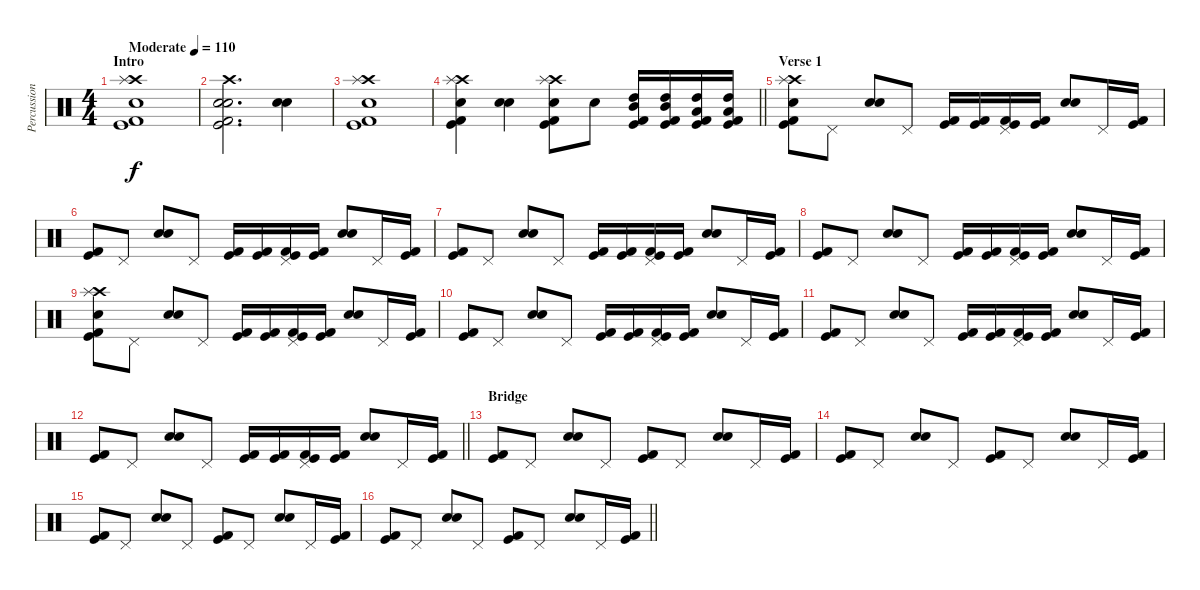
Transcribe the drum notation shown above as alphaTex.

\track ("Percussion" "Percussion") {instrument percussion}
\staff {score}
\articulation defaults
\ts (4 4)
\section ("" "Intro")
\tempo (110 "Moderate")
\clef neutral
\ks c
("Crash high (hit)" "Splash (hit)" "Snare (hit) 2" "Kick (hit)" "Kick (hit) 2").1{dy f} |
("Crash high (hit)" "Electric Snare (hit)" "Snare (hit) 2" "Kick (hit)" "Kick (hit) 2").2{d} ("Electric Snare (hit)" "Snare (hit) 2").4 |
("Crash high (hit)" "Splash (hit)" "Snare (hit) 2" "Kick (hit)" "Kick (hit) 2").1 |
\barLineRight lightlight
("Crash high (hit)" "Splash (hit)" "Snare (hit) 2" "Kick (hit)" "Kick (hit) 2").4 ("Electric Snare (hit)" "Snare (hit) 2").4 ("Crash high (hit)" "Splash (hit)" "Snare (hit) 2" "Kick (hit)" "Kick (hit) 2").8 "Snare (hit) 2".8 ("High Tom (hit)" "Mid Tom (hit)" "Kick (hit)" "Kick (hit) 2").16 ("High Tom (hit)" "Mid Tom (hit)" "Kick (hit)" "Kick (hit) 2").16 ("High Tom (hit)" "Low Tom (hit)" "Kick (hit)" "Kick (hit) 2").16 ("High Tom (hit)" "Low Tom (hit)" "Kick (hit)" "Kick (hit) 2").16 |
\section ("" "Verse 1")
("Crash high (hit)" "Splash (hit)" "Snare (hit) 2" "Kick (hit)" "Kick (hit) 2").8 "Pedal Hi-Hat (hit)".8 ("Electric Snare (hit)" "Snare (hit) 2").8 "Pedal Hi-Hat (hit)".8 ("Kick (hit)" "Kick (hit) 2").16 ("Kick (hit)" "Kick (hit) 2").16 ("Pedal Hi-Hat (hit)" "Kick (hit)" "Kick (hit) 2").16 ("Kick (hit)" "Kick (hit) 2").16 ("Electric Snare (hit)" "Snare (hit) 2").8 "Pedal Hi-Hat (hit)".16 ("Kick (hit)" "Kick (hit) 2").16 |
("Kick (hit)" "Kick (hit) 2").8 "Pedal Hi-Hat (hit)".8 ("Electric Snare (hit)" "Snare (hit) 2").8 "Pedal Hi-Hat (hit)".8 ("Kick (hit)" "Kick (hit) 2").16 ("Kick (hit)" "Kick (hit) 2").16 ("Pedal Hi-Hat (hit)" "Kick (hit)" "Kick (hit) 2").16 ("Kick (hit)" "Kick (hit) 2").16 ("Electric Snare (hit)" "Snare (hit) 2").8 "Pedal Hi-Hat (hit)".16 ("Kick (hit)" "Kick (hit) 2").16 |
("Kick (hit)" "Kick (hit) 2").8 "Pedal Hi-Hat (hit)".8 ("Electric Snare (hit)" "Snare (hit) 2").8 "Pedal Hi-Hat (hit)".8 ("Kick (hit)" "Kick (hit) 2").16 ("Kick (hit)" "Kick (hit) 2").16 ("Pedal Hi-Hat (hit)" "Kick (hit)" "Kick (hit) 2").16 ("Kick (hit)" "Kick (hit) 2").16 ("Electric Snare (hit)" "Snare (hit) 2").8 "Pedal Hi-Hat (hit)".16 ("Kick (hit)" "Kick (hit) 2").16 |
("Kick (hit)" "Kick (hit) 2").8 "Pedal Hi-Hat (hit)".8 ("Electric Snare (hit)" "Snare (hit) 2").8 "Pedal Hi-Hat (hit)".8 ("Kick (hit)" "Kick (hit) 2").16 ("Kick (hit)" "Kick (hit) 2").16 ("Pedal Hi-Hat (hit)" "Kick (hit)" "Kick (hit) 2").16 ("Kick (hit)" "Kick (hit) 2").16 ("Electric Snare (hit)" "Snare (hit) 2").8 "Pedal Hi-Hat (hit)".16 ("Kick (hit)" "Kick (hit) 2").16 |
("Crash high (hit)" "Splash (hit)" "Snare (hit) 2" "Kick (hit)" "Kick (hit) 2").8 "Pedal Hi-Hat (hit)".8 ("Electric Snare (hit)" "Snare (hit) 2").8 "Pedal Hi-Hat (hit)".8 ("Kick (hit)" "Kick (hit) 2").16 ("Kick (hit)" "Kick (hit) 2").16 ("Pedal Hi-Hat (hit)" "Kick (hit)" "Kick (hit) 2").16 ("Kick (hit)" "Kick (hit) 2").16 ("Electric Snare (hit)" "Snare (hit) 2").8 "Pedal Hi-Hat (hit)".16 ("Kick (hit)" "Kick (hit) 2").16 |
("Kick (hit)" "Kick (hit) 2").8 "Pedal Hi-Hat (hit)".8 ("Electric Snare (hit)" "Snare (hit) 2").8 "Pedal Hi-Hat (hit)".8 ("Kick (hit)" "Kick (hit) 2").16 ("Kick (hit)" "Kick (hit) 2").16 ("Pedal Hi-Hat (hit)" "Kick (hit)" "Kick (hit) 2").16 ("Kick (hit)" "Kick (hit) 2").16 ("Electric Snare (hit)" "Snare (hit) 2").8 "Pedal Hi-Hat (hit)".16 ("Kick (hit)" "Kick (hit) 2").16 |
("Kick (hit)" "Kick (hit) 2").8 "Pedal Hi-Hat (hit)".8 ("Electric Snare (hit)" "Snare (hit) 2").8 "Pedal Hi-Hat (hit)".8 ("Kick (hit)" "Kick (hit) 2").16 ("Kick (hit)" "Kick (hit) 2").16 ("Pedal Hi-Hat (hit)" "Kick (hit)" "Kick (hit) 2").16 ("Kick (hit)" "Kick (hit) 2").16 ("Electric Snare (hit)" "Snare (hit) 2").8 "Pedal Hi-Hat (hit)".16 ("Kick (hit)" "Kick (hit) 2").16 |
\barLineRight lightlight
("Kick (hit)" "Kick (hit) 2").8 "Pedal Hi-Hat (hit)".8 ("Electric Snare (hit)" "Snare (hit) 2").8 "Pedal Hi-Hat (hit)".8 ("Kick (hit)" "Kick (hit) 2").16 ("Kick (hit)" "Kick (hit) 2").16 ("Pedal Hi-Hat (hit)" "Kick (hit)" "Kick (hit) 2").16 ("Kick (hit)" "Kick (hit) 2").16 ("Electric Snare (hit)" "Snare (hit) 2").8 "Pedal Hi-Hat (hit)".16 ("Kick (hit)" "Kick (hit) 2").16 |
\section ("" "Bridge")
("Kick (hit)" "Kick (hit) 2").8 "Pedal Hi-Hat (hit)".8 ("Electric Snare (hit)" "Snare (hit) 2").8 "Pedal Hi-Hat (hit)".8 ("Kick (hit)" "Kick (hit) 2").8 "Pedal Hi-Hat (hit)".8 ("Electric Snare (hit)" "Snare (hit) 2").8 "Pedal Hi-Hat (hit)".16 ("Kick (hit)" "Kick (hit) 2").16 |
("Kick (hit)" "Kick (hit) 2").8 "Pedal Hi-Hat (hit)".8 ("Electric Snare (hit)" "Snare (hit) 2").8 "Pedal Hi-Hat (hit)".8 ("Kick (hit)" "Kick (hit) 2").8 "Pedal Hi-Hat (hit)".8 ("Electric Snare (hit)" "Snare (hit) 2").8 "Pedal Hi-Hat (hit)".16 ("Kick (hit)" "Kick (hit) 2").16 |
("Kick (hit)" "Kick (hit) 2").8 "Pedal Hi-Hat (hit)".8 ("Electric Snare (hit)" "Snare (hit) 2").8 "Pedal Hi-Hat (hit)".8 ("Kick (hit)" "Kick (hit) 2").8 "Pedal Hi-Hat (hit)".8 ("Electric Snare (hit)" "Snare (hit) 2").8 "Pedal Hi-Hat (hit)".16 ("Kick (hit)" "Kick (hit) 2").16 |
\barLineRight lightlight
("Kick (hit)" "Kick (hit) 2").8 "Pedal Hi-Hat (hit)".8 ("Electric Snare (hit)" "Snare (hit) 2").8 "Pedal Hi-Hat (hit)".8 ("Kick (hit)" "Kick (hit) 2").8 "Pedal Hi-Hat (hit)".8 ("Electric Snare (hit)" "Snare (hit) 2").8 "Pedal Hi-Hat (hit)".16 ("Kick (hit)" "Kick (hit) 2").16
